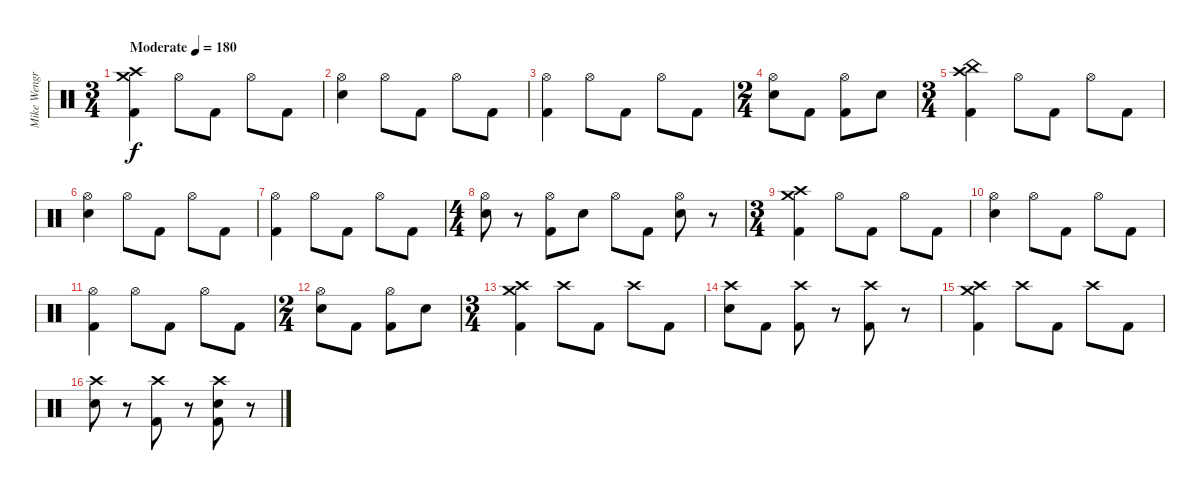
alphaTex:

\track ("Mike Wengren" "Mike Wengr") {instrument percussion}
\staff {score}
\articulation defaults
\ts (3 4)
\tempo (180 "Moderate")
\clef neutral
\ks c
("Crash medium (hit)" "Crash high (hit)" "Kick (hit) 2").4{dy f} "Hi-Hat (open)".8 "Kick (hit) 2".8 "Hi-Hat (open)".8 "Kick (hit) 2".8 |
("Hi-Hat (open)" "Snare (hit) 2").4 "Hi-Hat (open)".8 "Kick (hit) 2".8 "Hi-Hat (open)".8 "Kick (hit) 2".8 |
("Hi-Hat (open)" "Kick (hit) 2").4 "Hi-Hat (open)".8 "Kick (hit) 2".8 "Hi-Hat (open)".8 "Kick (hit) 2".8 |
\ts (2 4)
("Hi-Hat (open)" "Snare (hit) 2").8 "Kick (hit) 2".8 ("Hi-Hat (open)" "Kick (hit) 2").8 "Snare (hit) 2".8 |
\ts (3 4)
("China (hit)" "Crash high (hit)" "Kick (hit) 2").4 "Hi-Hat (open)".8 "Kick (hit) 2".8 "Hi-Hat (open)".8 "Kick (hit) 2".8 |
("Hi-Hat (open)" "Snare (hit) 2").4 "Hi-Hat (open)".8 "Kick (hit) 2".8 "Hi-Hat (open)".8 "Kick (hit) 2".8 |
("Hi-Hat (open)" "Kick (hit) 2").4 "Hi-Hat (open)".8 "Kick (hit) 2".8 "Hi-Hat (open)".8 "Kick (hit) 2".8 |
\ts (4 4)
("Hi-Hat (open)" "Snare (hit) 2").8 r.8 ("Hi-Hat (open)" "Kick (hit) 2").8 "Snare (hit) 2".8 "Hi-Hat (open)".8 "Kick (hit) 2".8 ("Hi-Hat (open)" "Snare (hit) 2").8 r.8 |
\ts (3 4)
("Crash medium (hit)" "Crash high (hit)" "Kick (hit) 2").4 "Hi-Hat (open)".8 "Kick (hit) 2".8 "Hi-Hat (open)".8 "Kick (hit) 2".8 |
("Hi-Hat (open)" "Snare (hit) 2").4 "Hi-Hat (open)".8 "Kick (hit) 2".8 "Hi-Hat (open)".8 "Kick (hit) 2".8 |
("Hi-Hat (open)" "Kick (hit) 2").4 "Hi-Hat (open)".8 "Kick (hit) 2".8 "Hi-Hat (open)".8 "Kick (hit) 2".8 |
\ts (2 4)
("Hi-Hat (open)" "Snare (hit) 2").8 "Kick (hit) 2".8 ("Hi-Hat (open)" "Kick (hit) 2").8 "Snare (hit) 2".8 |
\ts (3 4)
("Crash medium (hit)" "Crash high (hit)" "Kick (hit) 2").4 "Crash high (hit)".8 "Kick (hit) 2".8 "Crash high (hit)".8 "Kick (hit) 2".8 |
("Crash high (hit)" "Snare (hit) 2").8 "Kick (hit) 2".8 ("Crash high (hit)" "Kick (hit) 2").8 r.8 ("Crash high (hit)" "Kick (hit) 2").8 r.8 |
("Crash medium (hit)" "Crash high (hit)" "Kick (hit) 2").4 "Crash high (hit)".8 "Kick (hit) 2".8 "Crash high (hit)".8 "Kick (hit) 2".8 |
("Crash high (hit)" "Snare (hit) 2").8 r.8 ("Crash high (hit)" "Kick (hit) 2").8 r.8 ("Crash high (hit)" "Snare (hit) 2" "Kick (hit) 2").8 r.8
